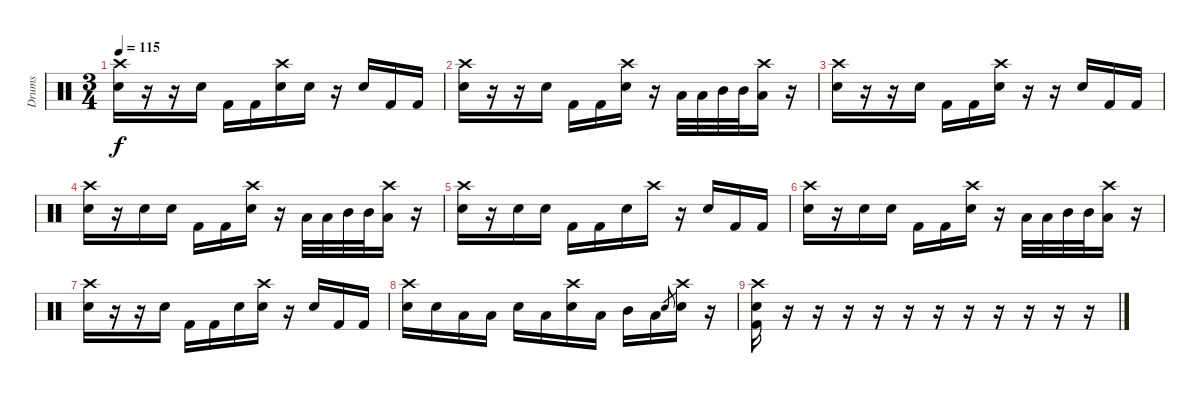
\track ("Drums" "Drums") {instrument percussion}
\staff {score}
\articulation defaults
\ts (3 4)
\tempo 115
\clef neutral
\ks c
("Crash high (hit)" "Electric Snare (hit)").16{dy f} r.16 r.16 "Electric Snare (hit)".16 "Kick (hit) 2".16 "Kick (hit) 2".16 ("Crash high (hit)" "Electric Snare (hit)").16 "Electric Snare (hit)".16 r.16 "Electric Snare (hit)".16 "Kick (hit) 2".16 "Kick (hit) 2".16 |
("Crash high (hit)" "Electric Snare (hit)").16 r.16 r.16 "Electric Snare (hit)".16 "Kick (hit) 2".16 "Kick (hit) 2".16 ("Crash high (hit)" "Electric Snare (hit)").16 r.16 "Low Tom (hit)".32 "Low Tom (hit)".32 "Mid Tom (hit)".32 "Mid Tom (hit)".32 ("Crash high (hit)" "Low Tom (hit)").16 r.16 |
("Crash high (hit)" "Electric Snare (hit)").16 r.16 r.16 "Electric Snare (hit)".16 "Kick (hit) 2".16 "Kick (hit) 2".16 ("Crash high (hit)" "Electric Snare (hit)").16 r.16 r.16 "Electric Snare (hit)".16 "Kick (hit) 2".16 "Kick (hit) 2".16 |
("Crash high (hit)" "Electric Snare (hit)").16 r.16 "Electric Snare (hit)".16 "Electric Snare (hit)".16 "Kick (hit) 2".16 "Kick (hit) 2".16 ("Crash high (hit)" "Electric Snare (hit)").16 r.16 "Low Tom (hit)".32 "Low Tom (hit)".32 "Mid Tom (hit)".32 "Mid Tom (hit)".32 ("Crash high (hit)" "Low Tom (hit)").16 r.16 |
("Crash high (hit)" "Electric Snare (hit)").16 r.16 "Electric Snare (hit)".16 "Electric Snare (hit)".16 "Kick (hit) 2".16 "Kick (hit) 2".16 "Electric Snare (hit)".16 "Crash high (hit)".16 r.16 "Electric Snare (hit)".16 "Kick (hit) 2".16 "Kick (hit) 2".16 |
("Crash high (hit)" "Electric Snare (hit)").16 r.16 "Electric Snare (hit)".16 "Electric Snare (hit)".16 "Kick (hit) 2".16 "Kick (hit) 2".16 ("Crash high (hit)" "Electric Snare (hit)").16 r.16 "Low Tom (hit)".32 "Low Tom (hit)".32 "Mid Tom (hit)".32 "Mid Tom (hit)".32 ("Crash high (hit)" "Low Tom (hit)").16 r.16 |
("Crash high (hit)" "Electric Snare (hit)").16 r.16 r.16 "Electric Snare (hit)".16 "Kick (hit) 2".16 "Kick (hit) 2".16 "Electric Snare (hit)".16 ("Crash high (hit)" "Electric Snare (hit)").16 r.16 "Electric Snare (hit)".16 "Kick (hit) 2".16 "Kick (hit) 2".16 |
("Crash high (hit)" "Electric Snare (hit)").16 "Electric Snare (hit)".16 "Low Tom (hit)".16 "Low Tom (hit)".16 "Electric Snare (hit)".16 "Low Tom (hit)".16 ("Crash high (hit)" "Electric Snare (hit)").16 "Low Tom (hit)".16 "Mid Tom (hit)".16 "Low Tom (hit)".16 "Electric Snare (hit)".8{gr} ("Crash high (hit)" "Electric Snare (hit)").16 r.16 |
("Crash high (hit)" "Electric Snare (hit)" "Kick (hit) 2").16 r.16 r.16 r.16 r.16 r.16 r.16 r.16 r.16 r.16 r.16 r.16
